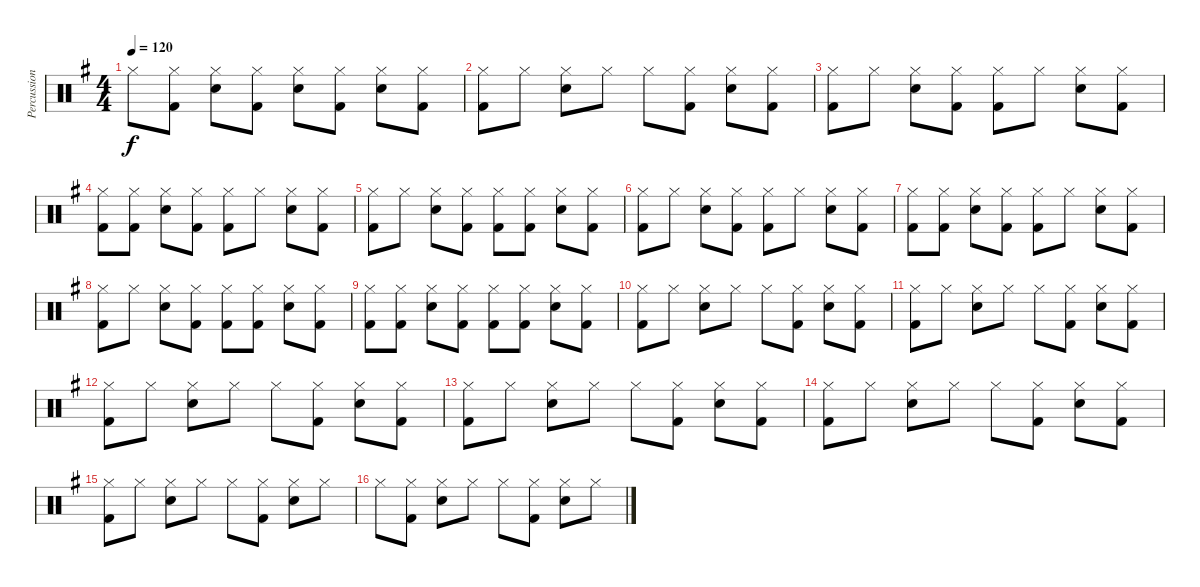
\track ("Percussion" "Percussion") {instrument percussion}
\staff {score}
\articulation defaults
\ts (4 4)
\tempo 120
\clef neutral
\ks g "Hi-Hat (closed)".8{dy f}
("Hi-Hat (closed)" "Kick (hit) 2").8 ("Hi-Hat (closed)" "Snare (hit) 2").8 ("Hi-Hat (closed)" "Kick (hit) 2").8 ("Hi-Hat (closed)" "Snare (hit) 2").8 ("Hi-Hat (closed)" "Kick (hit) 2").8 ("Hi-Hat (closed)" "Snare (hit) 2").8 ("Hi-Hat (closed)" "Kick (hit) 2").8 |
("Hi-Hat (closed)" "Kick (hit) 2").8 "Hi-Hat (closed)".8 ("Hi-Hat (closed)" "Snare (hit) 2").8 "Hi-Hat (closed)".8 "Hi-Hat (closed)".8 ("Hi-Hat (closed)" "Kick (hit) 2").8 ("Hi-Hat (closed)" "Snare (hit) 2").8 ("Hi-Hat (closed)" "Kick (hit) 2").8 |
("Hi-Hat (closed)" "Kick (hit) 2").8 "Hi-Hat (closed)".8 ("Hi-Hat (closed)" "Snare (hit) 2").8 ("Hi-Hat (closed)" "Kick (hit) 2").8 ("Hi-Hat (closed)" "Kick (hit) 2").8 "Hi-Hat (closed)".8 ("Hi-Hat (closed)" "Snare (hit) 2").8 ("Hi-Hat (closed)" "Kick (hit) 2").8 |
("Hi-Hat (closed)" "Kick (hit) 2").8 ("Hi-Hat (closed)" "Kick (hit) 2").8 ("Hi-Hat (closed)" "Snare (hit) 2").8 ("Hi-Hat (closed)" "Kick (hit) 2").8 ("Hi-Hat (closed)" "Kick (hit) 2").8 "Hi-Hat (closed)".8 ("Hi-Hat (closed)" "Snare (hit) 2").8 ("Hi-Hat (closed)" "Kick (hit) 2").8 |
("Hi-Hat (closed)" "Kick (hit) 2").8 "Hi-Hat (closed)".8 ("Hi-Hat (closed)" "Snare (hit) 2").8 ("Hi-Hat (closed)" "Kick (hit) 2").8 ("Hi-Hat (closed)" "Kick (hit) 2").8 ("Hi-Hat (closed)" "Kick (hit) 2").8 ("Hi-Hat (closed)" "Snare (hit) 2").8 ("Hi-Hat (closed)" "Kick (hit) 2").8 |
("Hi-Hat (closed)" "Kick (hit) 2").8 "Hi-Hat (closed)".8 ("Hi-Hat (closed)" "Snare (hit) 2").8 ("Hi-Hat (closed)" "Kick (hit) 2").8 ("Hi-Hat (closed)" "Kick (hit) 2").8 "Hi-Hat (closed)".8 ("Hi-Hat (closed)" "Snare (hit) 2").8 ("Hi-Hat (closed)" "Kick (hit) 2").8 |
("Hi-Hat (closed)" "Kick (hit) 2").8 ("Hi-Hat (closed)" "Kick (hit) 2").8 ("Hi-Hat (closed)" "Snare (hit) 2").8 ("Hi-Hat (closed)" "Kick (hit) 2").8 ("Hi-Hat (closed)" "Kick (hit) 2").8 "Hi-Hat (closed)".8 ("Hi-Hat (closed)" "Snare (hit) 2").8 ("Hi-Hat (closed)" "Kick (hit) 2").8 |
("Hi-Hat (closed)" "Kick (hit) 2").8 "Hi-Hat (closed)".8 ("Hi-Hat (closed)" "Snare (hit) 2").8 ("Hi-Hat (closed)" "Kick (hit) 2").8 ("Hi-Hat (closed)" "Kick (hit) 2").8 ("Hi-Hat (closed)" "Kick (hit) 2").8 ("Hi-Hat (closed)" "Snare (hit) 2").8 ("Hi-Hat (closed)" "Kick (hit) 2").8 |
("Hi-Hat (closed)" "Kick (hit) 2").8 ("Hi-Hat (closed)" "Kick (hit) 2").8 ("Hi-Hat (closed)" "Snare (hit) 2").8 ("Hi-Hat (closed)" "Kick (hit) 2").8 ("Hi-Hat (closed)" "Kick (hit) 2").8 ("Hi-Hat (closed)" "Kick (hit) 2").8 ("Hi-Hat (closed)" "Snare (hit) 2").8 ("Hi-Hat (closed)" "Kick (hit) 2").8 |
("Hi-Hat (closed)" "Kick (hit) 2").8 "Hi-Hat (closed)".8 ("Hi-Hat (closed)" "Snare (hit) 2").8 "Hi-Hat (closed)".8 "Hi-Hat (closed)".8 ("Hi-Hat (closed)" "Kick (hit) 2").8 ("Hi-Hat (closed)" "Snare (hit) 2").8 ("Hi-Hat (closed)" "Kick (hit) 2").8 |
("Hi-Hat (closed)" "Kick (hit) 2").8 "Hi-Hat (closed)".8 ("Hi-Hat (closed)" "Snare (hit) 2").8 "Hi-Hat (closed)".8 "Hi-Hat (closed)".8 ("Hi-Hat (closed)" "Kick (hit) 2").8 ("Hi-Hat (closed)" "Snare (hit) 2").8 ("Hi-Hat (closed)" "Kick (hit) 2").8 |
("Hi-Hat (closed)" "Kick (hit) 2").8 "Hi-Hat (closed)".8 ("Hi-Hat (closed)" "Snare (hit) 2").8 "Hi-Hat (closed)".8 "Hi-Hat (closed)".8 ("Hi-Hat (closed)" "Kick (hit) 2").8 ("Hi-Hat (closed)" "Snare (hit) 2").8 ("Hi-Hat (closed)" "Kick (hit) 2").8 |
("Hi-Hat (closed)" "Kick (hit) 2").8 "Hi-Hat (closed)".8 ("Hi-Hat (closed)" "Snare (hit) 2").8 "Hi-Hat (closed)".8 "Hi-Hat (closed)".8 ("Hi-Hat (closed)" "Kick (hit) 2").8 ("Hi-Hat (closed)" "Snare (hit) 2").8 ("Hi-Hat (closed)" "Kick (hit) 2").8 |
("Hi-Hat (closed)" "Kick (hit) 2").8 "Hi-Hat (closed)".8 ("Hi-Hat (closed)" "Snare (hit) 2").8 "Hi-Hat (closed)".8 "Hi-Hat (closed)".8 ("Hi-Hat (closed)" "Kick (hit) 2").8 ("Hi-Hat (closed)" "Snare (hit) 2").8 ("Hi-Hat (closed)" "Kick (hit) 2").8 |
("Hi-Hat (closed)" "Kick (hit) 2").8 "Hi-Hat (closed)".8 ("Hi-Hat (closed)" "Snare (hit) 2").8 "Hi-Hat (closed)".8 "Hi-Hat (closed)".8 ("Hi-Hat (closed)" "Kick (hit) 2").8 ("Hi-Hat (closed)" "Snare (hit) 2").8 "Hi-Hat (closed)".8 |
"Hi-Hat (closed)".8 ("Hi-Hat (closed)" "Kick (hit) 2").8 ("Hi-Hat (closed)" "Snare (hit) 2").8 "Hi-Hat (closed)".8 "Hi-Hat (closed)".8 ("Hi-Hat (closed)" "Kick (hit) 2").8 ("Hi-Hat (closed)" "Snare (hit) 2").8 "Hi-Hat (closed)".8
